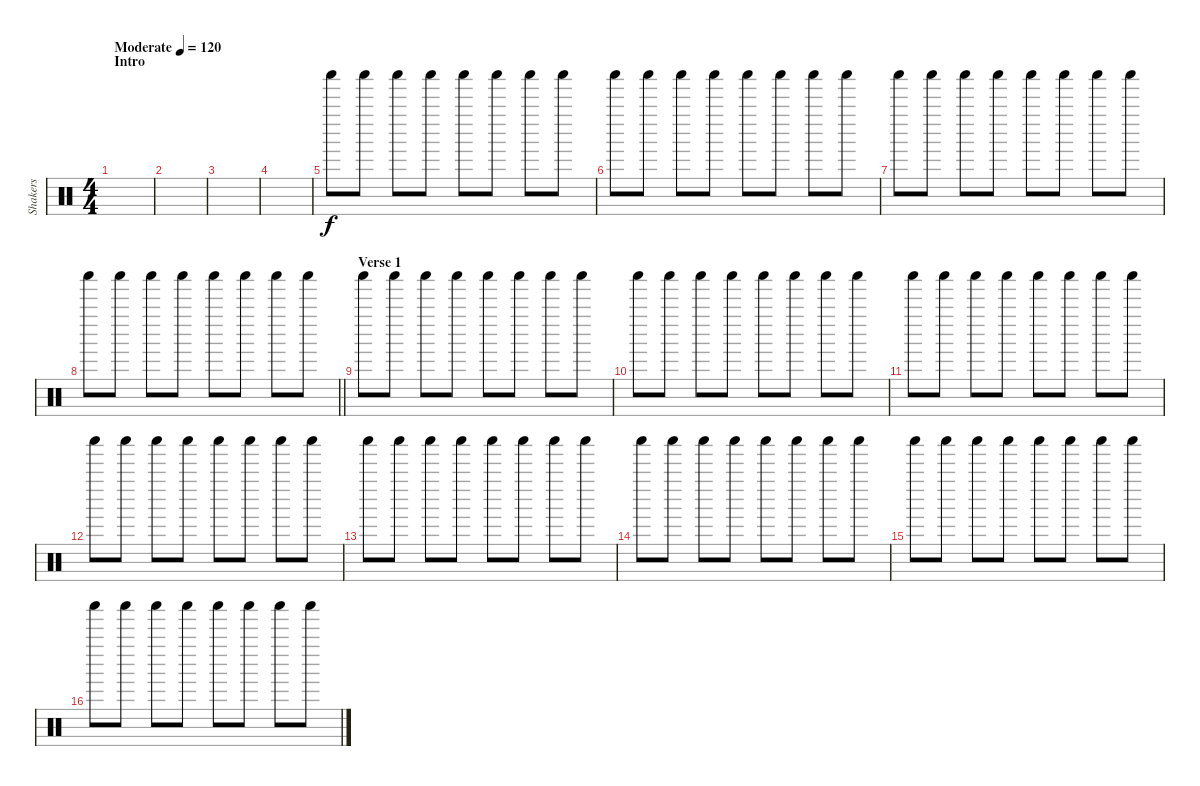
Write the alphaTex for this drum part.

\track ("Shakers" "Shakers") {instrument percussion}
\staff {score}
\articulation defaults
\ts (4 4)
\section ("" "Intro")
\tempo (120 "Moderate")
\clef neutral
\ks c
|
|
|
|
"Shaker (hit)".8 "Shaker (hit)".8 "Shaker (hit)".8 "Shaker (hit)".8 "Shaker (hit)".8 "Shaker (hit)".8 "Shaker (hit)".8 "Shaker (hit)".8 |
"Shaker (hit)".8 "Shaker (hit)".8 "Shaker (hit)".8 "Shaker (hit)".8 "Shaker (hit)".8 "Shaker (hit)".8 "Shaker (hit)".8 "Shaker (hit)".8 |
"Shaker (hit)".8 "Shaker (hit)".8 "Shaker (hit)".8 "Shaker (hit)".8 "Shaker (hit)".8 "Shaker (hit)".8 "Shaker (hit)".8 "Shaker (hit)".8 |
\barLineRight lightlight "Shaker (hit)".8 "Shaker (hit)".8 "Shaker (hit)".8 "Shaker (hit)".8 "Shaker (hit)".8 "Shaker (hit)".8 "Shaker (hit)".8 "Shaker (hit)".8
|
\section ("" "Verse 1")
"Shaker (hit)".8 "Shaker (hit)".8 "Shaker (hit)".8 "Shaker (hit)".8 "Shaker (hit)".8 "Shaker (hit)".8 "Shaker (hit)".8 "Shaker (hit)".8 |
"Shaker (hit)".8 "Shaker (hit)".8 "Shaker (hit)".8 "Shaker (hit)".8 "Shaker (hit)".8 "Shaker (hit)".8 "Shaker (hit)".8 "Shaker (hit)".8 |
"Shaker (hit)".8 "Shaker (hit)".8 "Shaker (hit)".8 "Shaker (hit)".8 "Shaker (hit)".8 "Shaker (hit)".8 "Shaker (hit)".8 "Shaker (hit)".8 |
"Shaker (hit)".8 "Shaker (hit)".8 "Shaker (hit)".8 "Shaker (hit)".8 "Shaker (hit)".8 "Shaker (hit)".8 "Shaker (hit)".8 "Shaker (hit)".8 |
"Shaker (hit)".8 "Shaker (hit)".8 "Shaker (hit)".8 "Shaker (hit)".8 "Shaker (hit)".8 "Shaker (hit)".8 "Shaker (hit)".8 "Shaker (hit)".8 |
"Shaker (hit)".8 "Shaker (hit)".8 "Shaker (hit)".8 "Shaker (hit)".8 "Shaker (hit)".8 "Shaker (hit)".8 "Shaker (hit)".8 "Shaker (hit)".8 |
"Shaker (hit)".8 "Shaker (hit)".8 "Shaker (hit)".8 "Shaker (hit)".8 "Shaker (hit)".8 "Shaker (hit)".8 "Shaker (hit)".8 "Shaker (hit)".8 |
"Shaker (hit)".8 "Shaker (hit)".8 "Shaker (hit)".8 "Shaker (hit)".8 "Shaker (hit)".8 "Shaker (hit)".8 "Shaker (hit)".8 "Shaker (hit)".8
